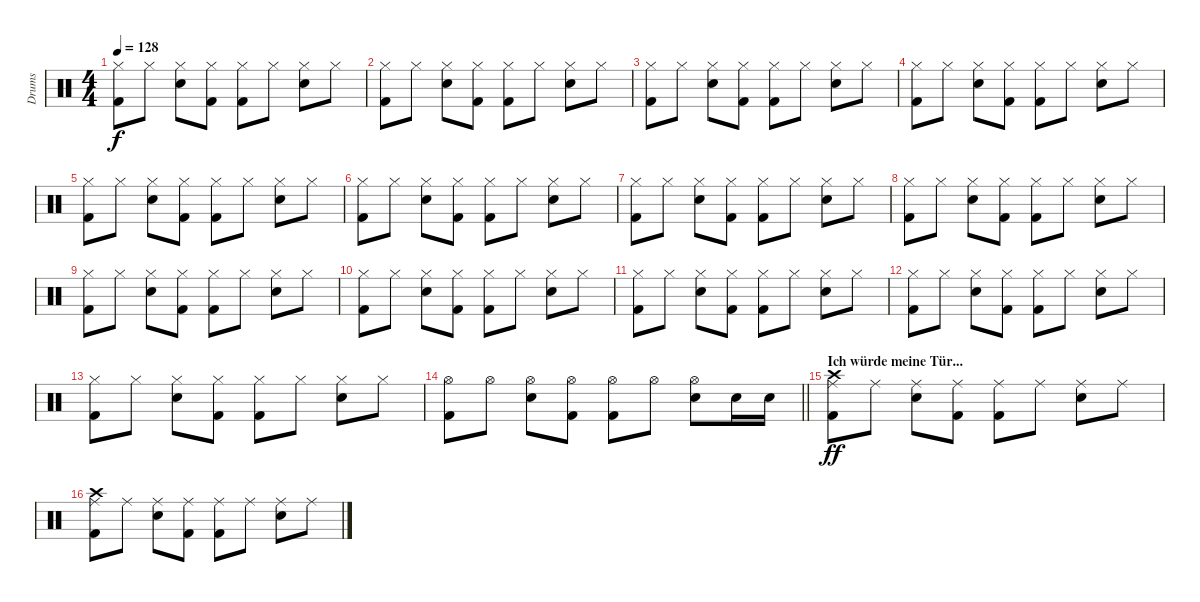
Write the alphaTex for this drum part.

\track ("Drums" "Drums") {instrument percussion}
\staff {score}
\articulation defaults
\ts (4 4)
\tempo 128
\clef neutral
\ks c
("Hi-Hat (closed)" "Kick (hit) 2").8{dy f} "Hi-Hat (closed)".8 ("Hi-Hat (closed)" "Snare (hit) 2").8 ("Hi-Hat (closed)" "Kick (hit) 2").8 ("Hi-Hat (closed)" "Kick (hit) 2").8 "Hi-Hat (closed)".8 ("Hi-Hat (closed)" "Snare (hit) 2").8 "Hi-Hat (closed)".8 |
("Hi-Hat (closed)" "Kick (hit) 2").8 "Hi-Hat (closed)".8 ("Hi-Hat (closed)" "Snare (hit) 2").8 ("Hi-Hat (closed)" "Kick (hit) 2").8 ("Hi-Hat (closed)" "Kick (hit) 2").8 "Hi-Hat (closed)".8 ("Hi-Hat (closed)" "Snare (hit) 2").8 "Hi-Hat (closed)".8 |
("Hi-Hat (closed)" "Kick (hit) 2").8 "Hi-Hat (closed)".8 ("Hi-Hat (closed)" "Snare (hit) 2").8 ("Hi-Hat (closed)" "Kick (hit) 2").8 ("Hi-Hat (closed)" "Kick (hit) 2").8 "Hi-Hat (closed)".8 ("Hi-Hat (closed)" "Snare (hit) 2").8 "Hi-Hat (closed)".8 |
("Hi-Hat (closed)" "Kick (hit) 2").8 "Hi-Hat (closed)".8 ("Hi-Hat (closed)" "Snare (hit) 2").8 ("Hi-Hat (closed)" "Kick (hit) 2").8 ("Hi-Hat (closed)" "Kick (hit) 2").8 "Hi-Hat (closed)".8 ("Hi-Hat (closed)" "Snare (hit) 2").8 "Hi-Hat (closed)".8 |
("Hi-Hat (closed)" "Kick (hit) 2").8 "Hi-Hat (closed)".8 ("Hi-Hat (closed)" "Snare (hit) 2").8 ("Hi-Hat (closed)" "Kick (hit) 2").8 ("Hi-Hat (closed)" "Kick (hit) 2").8 "Hi-Hat (closed)".8 ("Hi-Hat (closed)" "Snare (hit) 2").8 "Hi-Hat (closed)".8 |
("Hi-Hat (closed)" "Kick (hit) 2").8 "Hi-Hat (closed)".8 ("Hi-Hat (closed)" "Snare (hit) 2").8 ("Hi-Hat (closed)" "Kick (hit) 2").8 ("Hi-Hat (closed)" "Kick (hit) 2").8 "Hi-Hat (closed)".8 ("Hi-Hat (closed)" "Snare (hit) 2").8 "Hi-Hat (closed)".8 |
("Hi-Hat (closed)" "Kick (hit) 2").8 "Hi-Hat (closed)".8 ("Hi-Hat (closed)" "Snare (hit) 2").8 ("Hi-Hat (closed)" "Kick (hit) 2").8 ("Hi-Hat (closed)" "Kick (hit) 2").8 "Hi-Hat (closed)".8 ("Hi-Hat (closed)" "Snare (hit) 2").8 "Hi-Hat (closed)".8 |
("Hi-Hat (closed)" "Kick (hit) 2").8 "Hi-Hat (closed)".8 ("Hi-Hat (closed)" "Snare (hit) 2").8 ("Hi-Hat (closed)" "Kick (hit) 2").8 ("Hi-Hat (closed)" "Kick (hit) 2").8 "Hi-Hat (closed)".8 ("Hi-Hat (closed)" "Snare (hit) 2").8 "Hi-Hat (closed)".8 |
("Hi-Hat (closed)" "Kick (hit) 2").8 "Hi-Hat (closed)".8 ("Hi-Hat (closed)" "Snare (hit) 2").8 ("Hi-Hat (closed)" "Kick (hit) 2").8 ("Hi-Hat (closed)" "Kick (hit) 2").8 "Hi-Hat (closed)".8 ("Hi-Hat (closed)" "Snare (hit) 2").8 "Hi-Hat (closed)".8 |
("Hi-Hat (closed)" "Kick (hit) 2").8 "Hi-Hat (closed)".8 ("Hi-Hat (closed)" "Snare (hit) 2").8 ("Hi-Hat (closed)" "Kick (hit) 2").8 ("Hi-Hat (closed)" "Kick (hit) 2").8 "Hi-Hat (closed)".8 ("Hi-Hat (closed)" "Snare (hit) 2").8 "Hi-Hat (closed)".8 |
("Hi-Hat (closed)" "Kick (hit) 2").8 "Hi-Hat (closed)".8 ("Hi-Hat (closed)" "Snare (hit) 2").8 ("Hi-Hat (closed)" "Kick (hit) 2").8 ("Hi-Hat (closed)" "Kick (hit) 2").8 "Hi-Hat (closed)".8 ("Hi-Hat (closed)" "Snare (hit) 2").8 "Hi-Hat (closed)".8 |
("Hi-Hat (closed)" "Kick (hit) 2").8 "Hi-Hat (closed)".8 ("Hi-Hat (closed)" "Snare (hit) 2").8 ("Hi-Hat (closed)" "Kick (hit) 2").8 ("Hi-Hat (closed)" "Kick (hit) 2").8 "Hi-Hat (closed)".8 ("Hi-Hat (closed)" "Snare (hit) 2").8 "Hi-Hat (closed)".8 |
("Hi-Hat (closed)" "Kick (hit) 2").8 "Hi-Hat (closed)".8 ("Hi-Hat (closed)" "Snare (hit) 2").8 ("Hi-Hat (closed)" "Kick (hit) 2").8 ("Hi-Hat (closed)" "Kick (hit) 2").8 "Hi-Hat (closed)".8 ("Hi-Hat (closed)" "Snare (hit) 2").8 "Hi-Hat (closed)".8 |
\barLineRight lightlight
("Hi-Hat (open)" "Kick (hit) 2").8 "Hi-Hat (open)".8 ("Hi-Hat (open)" "Snare (hit) 2").8 ("Hi-Hat (open)" "Kick (hit) 2").8 ("Hi-Hat (open)" "Kick (hit) 2").8 "Hi-Hat (open)".8 ("Hi-Hat (open)" "Snare (hit) 2").8 "Snare (hit) 2".16 "Snare (hit) 2".16 |
\section ("" "Ich würde meine Tür...")
("Ride (middle)" "Kick (hit) 2" "Crash high (hit)").8{dy ff} "Ride (middle)".8 ("Ride (middle)" "Snare (hit) 2").8 ("Ride (middle)" "Kick (hit) 2").8 ("Ride (middle)" "Kick (hit) 2").8 "Ride (middle)".8 ("Ride (middle)" "Snare (hit) 2").8 "Ride (middle)".8 |
("Ride (middle)" "Kick (hit) 2" "Crash high (hit)").8 "Ride (middle)".8 ("Ride (middle)" "Snare (hit) 2").8 ("Ride (middle)" "Kick (hit) 2").8 ("Ride (middle)" "Kick (hit) 2").8 "Ride (middle)".8 ("Ride (middle)" "Snare (hit) 2").8 "Ride (middle)".8
